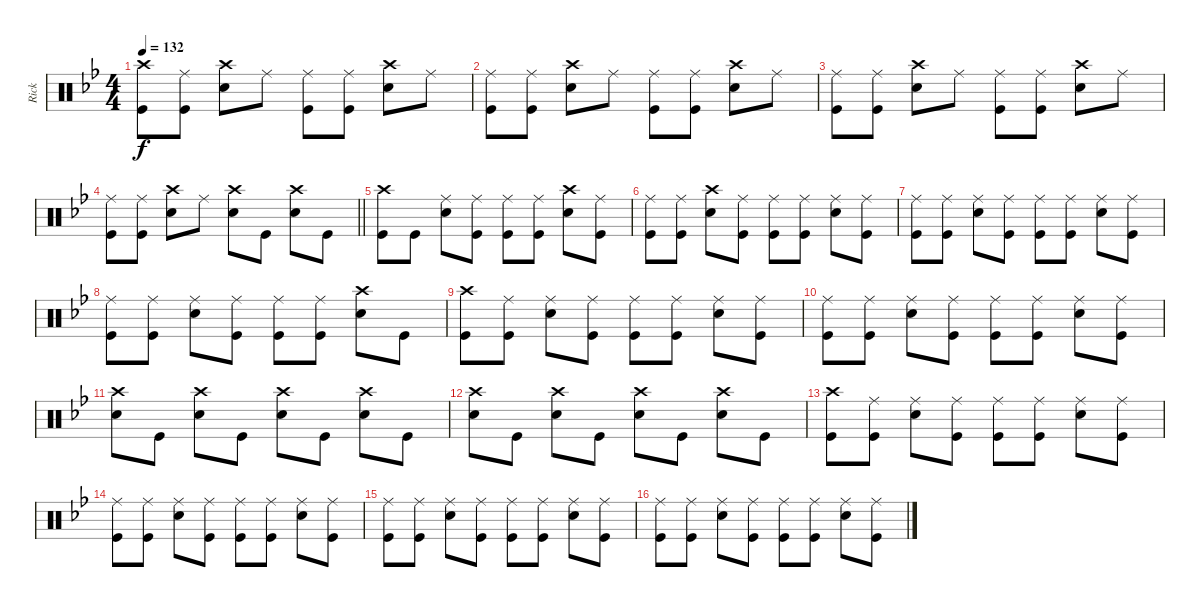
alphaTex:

\track ("Rick" "Rick") {instrument percussion}
\staff {score}
\articulation defaults
\ts (4 4)
\tempo 132
\clef neutral
\ks gminor
("Crash high (hit)" "Kick (hit)").8{dy f} ("Ride (middle)" "Kick (hit)").8 ("Crash high (hit)" "Snare (hit) 2").8 "Ride (middle)".8 ("Ride (middle)" "Kick (hit)").8 ("Ride (middle)" "Kick (hit)").8 ("Crash high (hit)" "Snare (hit) 2").8 "Ride (middle)".8 |
("Ride (middle)" "Kick (hit)").8 ("Ride (middle)" "Kick (hit)").8 ("Crash high (hit)" "Snare (hit) 2").8 "Ride (middle)".8 ("Ride (middle)" "Kick (hit)").8 ("Ride (middle)" "Kick (hit)").8 ("Crash high (hit)" "Snare (hit) 2").8 "Ride (middle)".8 |
("Ride (middle)" "Kick (hit)").8 ("Ride (middle)" "Kick (hit)").8 ("Crash high (hit)" "Snare (hit) 2").8 "Ride (middle)".8 ("Ride (middle)" "Kick (hit)").8 ("Ride (middle)" "Kick (hit)").8 ("Crash high (hit)" "Snare (hit) 2").8 "Ride (middle)".8 |
\barLineRight lightlight
("Ride (middle)" "Kick (hit)").8 ("Ride (middle)" "Kick (hit)").8 ("Crash high (hit)" "Snare (hit) 2").8 "Ride (middle)".8 ("Crash high (hit)" "Snare (hit) 2").8 "Kick (hit)".8 ("Crash high (hit)" "Snare (hit) 2").8 "Kick (hit)".8 |
("Crash high (hit)" "Kick (hit)").8 "Kick (hit)".8 ("Ride (middle)" "Snare (hit) 2").8 ("Ride (middle)" "Kick (hit)").8 ("Ride (middle)" "Kick (hit)").8 ("Ride (middle)" "Kick (hit)").8 ("Crash high (hit)" "Snare (hit) 2").8 ("Ride (middle)" "Kick (hit)").8 |
("Ride (middle)" "Kick (hit)").8 ("Ride (middle)" "Kick (hit)").8 ("Crash high (hit)" "Snare (hit) 2").8 ("Ride (middle)" "Kick (hit)").8 ("Ride (middle)" "Kick (hit)").8 ("Ride (middle)" "Kick (hit)").8 ("Ride (middle)" "Snare (hit) 2").8 ("Ride (middle)" "Kick (hit)").8 |
("Ride (middle)" "Kick (hit)").8 ("Ride (middle)" "Kick (hit)").8 ("Ride (middle)" "Snare (hit) 2").8 ("Ride (middle)" "Kick (hit)").8 ("Ride (middle)" "Kick (hit)").8 ("Ride (middle)" "Kick (hit)").8 ("Ride (middle)" "Snare (hit) 2").8 ("Ride (middle)" "Kick (hit)").8 |
("Ride (middle)" "Kick (hit)").8 ("Ride (middle)" "Kick (hit)").8 ("Ride (middle)" "Snare (hit) 2").8 ("Ride (middle)" "Kick (hit)").8 ("Ride (middle)" "Kick (hit)").8 ("Ride (middle)" "Kick (hit)").8 ("Crash high (hit)" "Snare (hit) 2").8 "Kick (hit)".8 |
("Crash high (hit)" "Kick (hit)").8 ("Ride (middle)" "Kick (hit)").8 ("Ride (middle)" "Snare (hit) 2").8 ("Ride (middle)" "Kick (hit)").8 ("Ride (middle)" "Kick (hit)").8 ("Ride (middle)" "Kick (hit)").8 ("Ride (middle)" "Snare (hit) 2").8 ("Ride (middle)" "Kick (hit)").8 |
("Ride (middle)" "Kick (hit)").8 ("Ride (middle)" "Kick (hit)").8 ("Ride (middle)" "Snare (hit) 2").8 ("Ride (middle)" "Kick (hit)").8 ("Ride (middle)" "Kick (hit)").8 ("Ride (middle)" "Kick (hit)").8 ("Ride (middle)" "Snare (hit) 2").8 ("Ride (middle)" "Kick (hit)").8 |
("Crash high (hit)" "Snare (hit) 2").8 "Kick (hit)".8 ("Crash high (hit)" "Snare (hit) 2").8 "Kick (hit)".8 ("Crash high (hit)" "Snare (hit) 2").8 "Kick (hit)".8 ("Crash high (hit)" "Snare (hit) 2").8 "Kick (hit)".8 |
("Crash high (hit)" "Snare (hit) 2").8 "Kick (hit)".8 ("Crash high (hit)" "Snare (hit) 2").8 "Kick (hit)".8 ("Crash high (hit)" "Snare (hit) 2").8 "Kick (hit)".8 ("Crash high (hit)" "Snare (hit) 2").8 "Kick (hit)".8 |
("Crash high (hit)" "Kick (hit)").8 ("Ride (middle)" "Kick (hit)").8 ("Ride (middle)" "Snare (hit) 2").8 ("Ride (middle)" "Kick (hit)").8 ("Ride (middle)" "Kick (hit)").8 ("Ride (middle)" "Kick (hit)").8 ("Ride (middle)" "Snare (hit) 2").8 ("Ride (middle)" "Kick (hit)").8 |
("Ride (middle)" "Kick (hit)").8 ("Ride (middle)" "Kick (hit)").8 ("Ride (middle)" "Snare (hit) 2").8 ("Ride (middle)" "Kick (hit)").8 ("Ride (middle)" "Kick (hit)").8 ("Ride (middle)" "Kick (hit)").8 ("Ride (middle)" "Snare (hit) 2").8 ("Ride (middle)" "Kick (hit)").8 |
("Ride (middle)" "Kick (hit)").8 ("Ride (middle)" "Kick (hit)").8 ("Ride (middle)" "Snare (hit) 2").8 ("Ride (middle)" "Kick (hit)").8 ("Ride (middle)" "Kick (hit)").8 ("Ride (middle)" "Kick (hit)").8 ("Ride (middle)" "Snare (hit) 2").8 ("Ride (middle)" "Kick (hit)").8 |
("Ride (middle)" "Kick (hit)").8 ("Ride (middle)" "Kick (hit)").8 ("Ride (middle)" "Snare (hit) 2").8 ("Ride (middle)" "Kick (hit)").8 ("Ride (middle)" "Kick (hit)").8 ("Ride (middle)" "Kick (hit)").8 ("Ride (middle)" "Snare (hit) 2").8 ("Ride (middle)" "Kick (hit)").8
